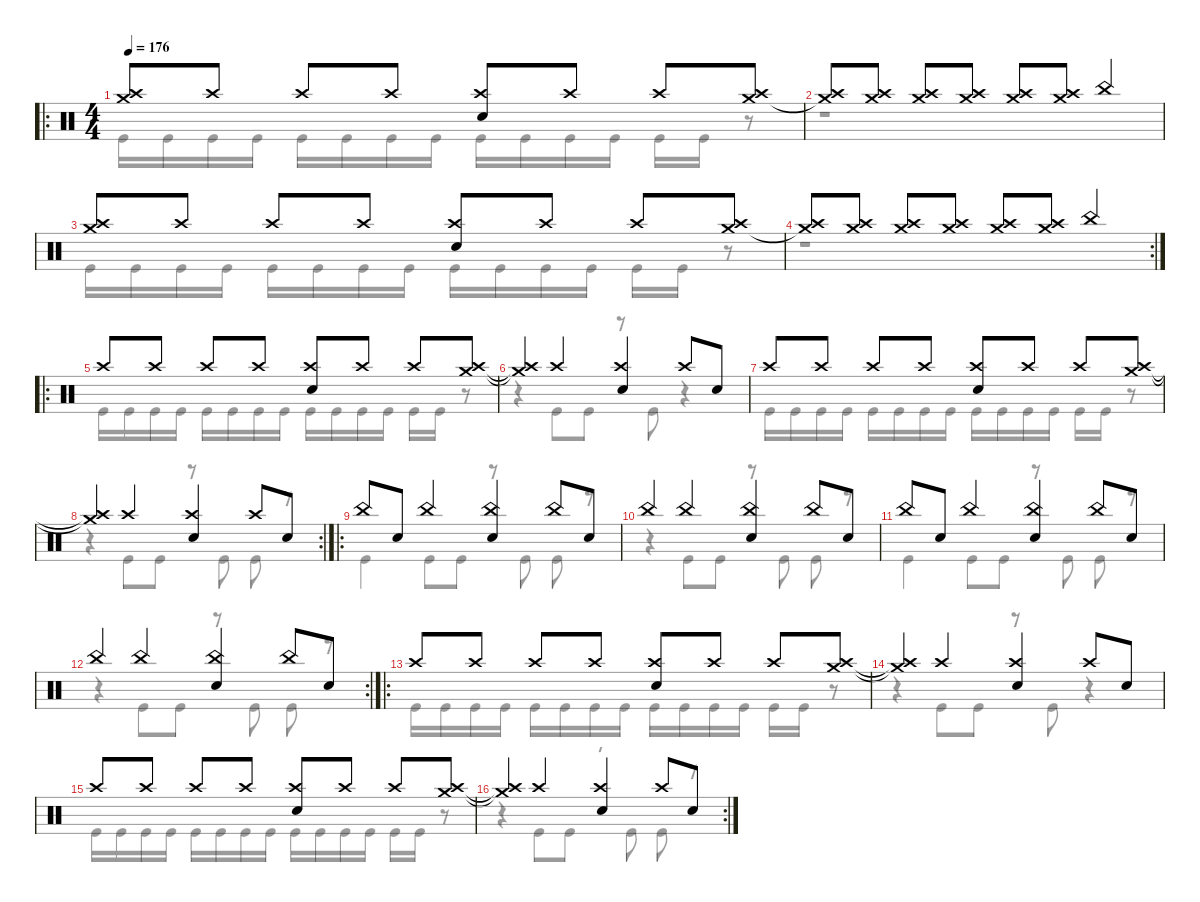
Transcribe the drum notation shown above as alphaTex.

\defaultSystemsLayout 4
\hideDynamics
\bracketExtendMode nobrackets
\singleTrackTrackNamePolicy hidden
\multiTrackTrackNamePolicy hidden
\firstSystemTrackNameMode fullname
\firstSystemTrackNameOrientation horizontal
\otherSystemsTrackNameOrientation horizontal
\track ("Drums" "drm.") {instrument percussion}
\staff {score}
\articulation defaults
\voice
\ro
\ts (4 4)
\beaming (8 2 2 2 2)
\tempo 176
\clef neutral
\ks c
("Crash medium (hit)" "Crash high (hit)").8{dy f beam Up} "Crash high (hit)".8{beam Up} "Crash high (hit)".8{beam Up} "Crash high (hit)".8{beam Up} ("Snare (hit) 2" "Crash high (hit)").8{beam Up} "Crash high (hit)".8{beam Up} "Crash high (hit)".8{beam Up} ("Crash high (hit)" "Crash medium (hit)").8{beam Up} |
("Crash high (hit)" "Crash medium (hit)"{t}).8{beam Up} ("Crash high (hit)" "Crash medium (hit)").8{beam Up} ("Crash high (hit)" "Crash medium (hit)").8{beam Up} ("Crash high (hit)" "Crash medium (hit)").8{beam Up} ("Crash high (hit)" "Crash medium (hit)").8{beam Up} ("Crash high (hit)" "Crash medium (hit)").8{beam Up} "China (hit)".4{beam Up} |
("Crash medium (hit)" "Crash high (hit)").8{beam Up} "Crash high (hit)".8{beam Up} "Crash high (hit)".8{beam Up} "Crash high (hit)".8{beam Up} ("Snare (hit) 2" "Crash high (hit)").8{beam Up} "Crash high (hit)".8{beam Up} "Crash high (hit)".8{beam Up} ("Crash high (hit)" "Crash medium (hit)").8{beam Up} |
\rc 2
("Crash high (hit)" "Crash medium (hit)"{t}).8{beam Up} ("Crash high (hit)" "Crash medium (hit)").8{beam Up} ("Crash high (hit)" "Crash medium (hit)").8{beam Up} ("Crash high (hit)" "Crash medium (hit)").8{beam Up} ("Crash high (hit)" "Crash medium (hit)").8{beam Up} ("Crash high (hit)" "Crash medium (hit)").8{beam Up} "China (hit)".4{beam Up} |
\ro "Crash high (hit)".8{beam Up} "Crash high (hit)".8{beam Up} "Crash high (hit)".8{beam Up} "Crash high (hit)".8{beam Up}
("Snare (hit) 2" "Crash high (hit)").8{beam Up} "Crash high (hit)".8{beam Up} "Crash high (hit)".8{beam Up} ("Crash high (hit)" "Crash medium (hit)").8{beam Up} |
("Crash high (hit)"{t} "Crash medium (hit)"{t}).4{dy mf beam Up} "Crash high (hit)".4{dy f beam Up} ("Snare (hit) 2" "Crash high (hit)").4{beam Up} "Crash high (hit)".8{beam Up} "Snare (hit) 2".8{beam Up} |
"Crash high (hit)".8{beam Up} "Crash high (hit)".8{beam Up} "Crash high (hit)".8{beam Up} "Crash high (hit)".8{beam Up} ("Snare (hit) 2" "Crash high (hit)").8{beam Up} "Crash high (hit)".8{beam Up} "Crash high (hit)".8{beam Up} ("Crash high (hit)" "Crash medium (hit)").8{beam Up} |
\rc 2
("Crash high (hit)"{t} "Crash medium (hit)"{t}).4{dy mf beam Up} "Crash high (hit)".4{dy f beam Up} ("Snare (hit) 2" "Crash high (hit)").4{beam Up} "Crash high (hit)".8{beam Up} "Snare (hit) 2".8{beam Up} |
\ro "China (hit)".8{beam Up} "Snare (hit) 2".8{beam Up} "China (hit)".4{beam Up}
("Snare (hit) 2" "China (hit)").4{beam Up} "China (hit)".8{beam Up} "Snare (hit) 2".8{beam Up} |
"China (hit)".4{beam Up} "China (hit)".4{beam Up} ("China (hit)" "Snare (hit) 2").4{beam Up} "China (hit)".8{beam Up} "Snare (hit) 2".8{beam Up} |
"China (hit)".8{beam Up} "Snare (hit) 2".8{beam Up} "China (hit)".4{beam Up} ("Snare (hit) 2" "China (hit)").4{beam Up} "China (hit)".8{beam Up} "Snare (hit) 2".8{beam Up} |
\rc 2 "China (hit)".4{beam Up} "China (hit)".4{beam Up}
("China (hit)" "Snare (hit) 2").4{beam Up} "China (hit)".8{beam Up} "Snare (hit) 2".8{beam Up} |
\ro "Crash high (hit)".8{beam Up} "Crash high (hit)".8{beam Up} "Crash high (hit)".8{beam Up} "Crash high (hit)".8{beam Up}
("Snare (hit) 2" "Crash high (hit)").8{beam Up} "Crash high (hit)".8{beam Up} "Crash high (hit)".8{beam Up} ("Crash high (hit)" "Crash medium (hit)").8{beam Up} |
("Crash high (hit)"{t} "Crash medium (hit)"{t}).4{dy mf beam Up} "Crash high (hit)".4{dy f beam Up} ("Snare (hit) 2" "Crash high (hit)").4{beam Up} "Crash high (hit)".8{beam Up} "Snare (hit) 2".8{beam Up} |
"Crash high (hit)".8{beam Up} "Crash high (hit)".8{beam Up} "Crash high (hit)".8{beam Up} "Crash high (hit)".8{beam Up} ("Snare (hit) 2" "Crash high (hit)").8{beam Up} "Crash high (hit)".8{beam Up} "Crash high (hit)".8{beam Up} ("Crash high (hit)" "Crash medium (hit)").8{beam Up} |
\rc 2
("Crash high (hit)"{t} "Crash medium (hit)"{t}).4{dy mf beam Up} "Crash high (hit)".4{dy f beam Up} ("Snare (hit) 2" "Crash high (hit)").4{beam Up} "Crash high (hit)".8{beam Up} "Snare (hit) 2".8{beam Up}
\voice
\clef neutral
\ottava regular
\simile none
\ks c "Kick (hit)".16{dy f beam Down} "Kick (hit)".16{beam Down} "Kick (hit)".16{beam Down} "Kick (hit)".16{beam Down} "Kick (hit)".16{beam Down} "Kick (hit)".16{beam Down} "Kick (hit)".16{beam Down} "Kick (hit)".16{beam Down} "Kick (hit)".16{beam Down} "Kick (hit)".16{beam Down} "Kick (hit)".16{beam Down} "Kick (hit)".16{beam Down} "Kick (hit)".16{beam Down} "Kick (hit)".16{beam Down}
r.8{beam Down} |
r.1{beam Down} |
"Kick (hit)".16{beam Down} "Kick (hit)".16{beam Down} "Kick (hit)".16{beam Down} "Kick (hit)".16{beam Down} "Kick (hit)".16{beam Down} "Kick (hit)".16{beam Down} "Kick (hit)".16{beam Down} "Kick (hit)".16{beam Down} "Kick (hit)".16{beam Down} "Kick (hit)".16{beam Down} "Kick (hit)".16{beam Down} "Kick (hit)".16{beam Down} "Kick (hit)".16{beam Down} "Kick (hit)".16{beam Down} r.8{beam Down} |
r.1{beam Down} |
"Kick (hit)".16{beam Down} "Kick (hit)".16{beam Down} "Kick (hit)".16{beam Down} "Kick (hit)".16{beam Down} "Kick (hit)".16{beam Down} "Kick (hit)".16{beam Down} "Kick (hit)".16{beam Down} "Kick (hit)".16{beam Down} "Kick (hit)".16{beam Down} "Kick (hit)".16{beam Down} "Kick (hit)".16{beam Down} "Kick (hit)".16{beam Down} "Kick (hit)".16{beam Down} "Kick (hit)".16{beam Down} r.8{beam Down} |
r.4{beam Down} "Kick (hit)".8{beam Down} "Kick (hit)".8{beam Down} r.8{beam Down} "Kick (hit)".8{beam Down} r.4{beam Down} |
"Kick (hit)".16{beam Down} "Kick (hit)".16{beam Down} "Kick (hit)".16{beam Down} "Kick (hit)".16{beam Down} "Kick (hit)".16{beam Down} "Kick (hit)".16{beam Down} "Kick (hit)".16{beam Down} "Kick (hit)".16{beam Down} "Kick (hit)".16{beam Down} "Kick (hit)".16{beam Down} "Kick (hit)".16{beam Down} "Kick (hit)".16{beam Down} "Kick (hit)".16{beam Down} "Kick (hit)".16{beam Down} r.8{beam Down} |
r.4{beam Down} "Kick (hit)".8{beam Down} "Kick (hit)".8{beam Down} r.8{beam Down} "Kick (hit)".8{beam Down} "Kick (hit)".8{beam Down} r.8{beam Down} |
"Kick (hit)".4{beam Down} "Kick (hit)".8{beam Down} "Kick (hit)".8{beam Down} r.8{beam Down} "Kick (hit)".8{beam Down} "Kick (hit)".8{beam Down} r.8{beam Down} |
r.4{beam Down} "Kick (hit)".8{beam Down} "Kick (hit)".8{beam Down} r.8{beam Down} "Kick (hit)".8{beam Down} "Kick (hit)".8{beam Down} r.8{beam Down} |
"Kick (hit)".4{beam Down} "Kick (hit)".8{beam Down} "Kick (hit)".8{beam Down} r.8{beam Down} "Kick (hit)".8{beam Down} "Kick (hit)".8{beam Down} r.8{beam Down} |
r.4{beam Down} "Kick (hit)".8{beam Down} "Kick (hit)".8{beam Down} r.8{beam Down} "Kick (hit)".8{beam Down} "Kick (hit)".8{beam Down} r.8{beam Down} |
"Kick (hit)".16{beam Down} "Kick (hit)".16{beam Down} "Kick (hit)".16{beam Down} "Kick (hit)".16{beam Down} "Kick (hit)".16{beam Down} "Kick (hit)".16{beam Down} "Kick (hit)".16{beam Down} "Kick (hit)".16{beam Down} "Kick (hit)".16{beam Down} "Kick (hit)".16{beam Down} "Kick (hit)".16{beam Down} "Kick (hit)".16{beam Down} "Kick (hit)".16{beam Down} "Kick (hit)".16{beam Down} r.8{beam Down} |
r.4{beam Down} "Kick (hit)".8{beam Down} "Kick (hit)".8{beam Down} r.8{beam Down} "Kick (hit)".8{beam Down} r.4{beam Down} |
"Kick (hit)".16{beam Down} "Kick (hit)".16{beam Down} "Kick (hit)".16{beam Down} "Kick (hit)".16{beam Down} "Kick (hit)".16{beam Down} "Kick (hit)".16{beam Down} "Kick (hit)".16{beam Down} "Kick (hit)".16{beam Down} "Kick (hit)".16{beam Down} "Kick (hit)".16{beam Down} "Kick (hit)".16{beam Down} "Kick (hit)".16{beam Down} "Kick (hit)".16{beam Down} "Kick (hit)".16{beam Down} r.8{beam Down} |
r.4{beam Down} "Kick (hit)".8{beam Down} "Kick (hit)".8{beam Down} r.8{beam Down} "Kick (hit)".8{beam Down} "Kick (hit)".8{beam Down} r.8{beam Down}
